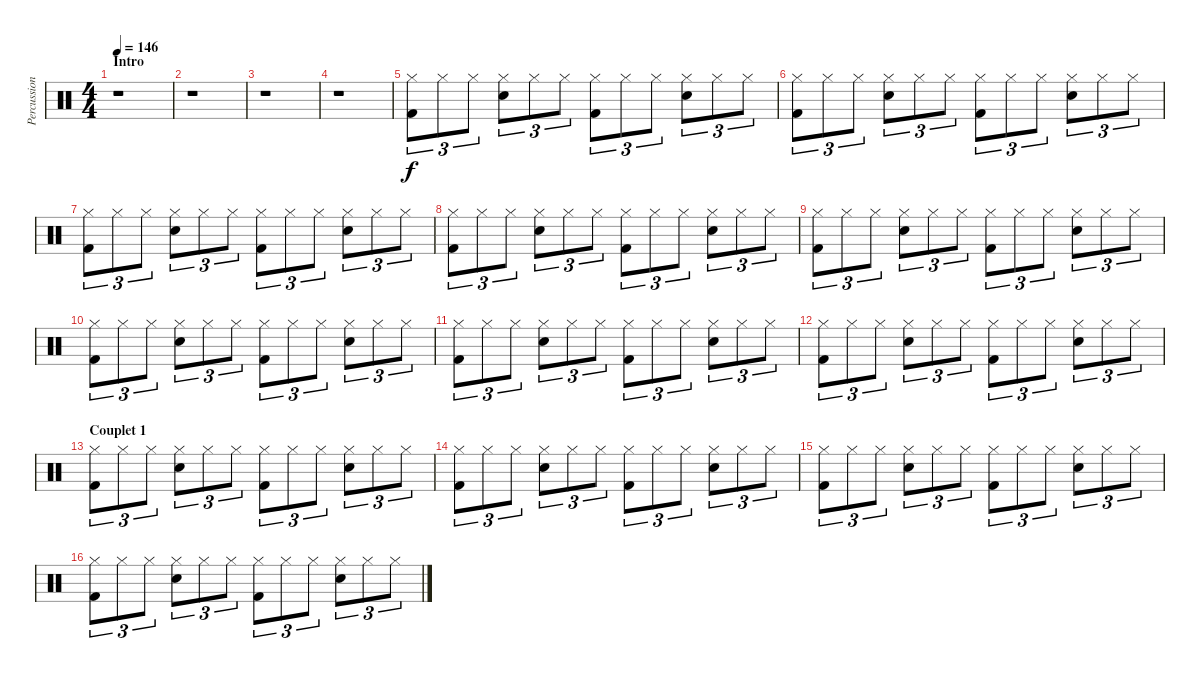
\track ("Percussions" "Percussion") {instrument percussion}
\staff {score}
\articulation defaults
\ts (4 4)
\section ("" "Intro")
\tempo 146
\clef neutral
\ks c
r.1{dy f} |
r.1 |
r.1 |
r.1 |
("Hi-Hat (closed)" "Kick (hit) 2").8{tu (3 2)} "Hi-Hat (closed)".8{tu (3 2)} "Hi-Hat (closed)".8{tu (3 2)} ("Hi-Hat (closed)" "Electric Snare (hit)").8{tu (3 2)} "Hi-Hat (closed)".8{tu (3 2)} "Hi-Hat (closed)".8{tu (3 2)} ("Hi-Hat (closed)" "Kick (hit) 2").8{tu (3 2)} "Hi-Hat (closed)".8{tu (3 2)} "Hi-Hat (closed)".8{tu (3 2)} ("Hi-Hat (closed)" "Electric Snare (hit)").8{tu (3 2)} "Hi-Hat (closed)".8{tu (3 2)} "Hi-Hat (closed)".8{tu (3 2)} |
("Hi-Hat (closed)" "Kick (hit) 2").8{tu (3 2)} "Hi-Hat (closed)".8{tu (3 2)} "Hi-Hat (closed)".8{tu (3 2)} ("Hi-Hat (closed)" "Electric Snare (hit)").8{tu (3 2)} "Hi-Hat (closed)".8{tu (3 2)} "Hi-Hat (closed)".8{tu (3 2)} ("Hi-Hat (closed)" "Kick (hit) 2").8{tu (3 2)} "Hi-Hat (closed)".8{tu (3 2)} "Hi-Hat (closed)".8{tu (3 2)} ("Hi-Hat (closed)" "Electric Snare (hit)").8{tu (3 2)} "Hi-Hat (closed)".8{tu (3 2)} "Hi-Hat (closed)".8{tu (3 2)} |
("Hi-Hat (closed)" "Kick (hit) 2").8{tu (3 2)} "Hi-Hat (closed)".8{tu (3 2)} "Hi-Hat (closed)".8{tu (3 2)} ("Hi-Hat (closed)" "Electric Snare (hit)").8{tu (3 2)} "Hi-Hat (closed)".8{tu (3 2)} "Hi-Hat (closed)".8{tu (3 2)} ("Hi-Hat (closed)" "Kick (hit) 2").8{tu (3 2)} "Hi-Hat (closed)".8{tu (3 2)} "Hi-Hat (closed)".8{tu (3 2)} ("Hi-Hat (closed)" "Electric Snare (hit)").8{tu (3 2)} "Hi-Hat (closed)".8{tu (3 2)} "Hi-Hat (closed)".8{tu (3 2)} |
("Hi-Hat (closed)" "Kick (hit) 2").8{tu (3 2)} "Hi-Hat (closed)".8{tu (3 2)} "Hi-Hat (closed)".8{tu (3 2)} ("Hi-Hat (closed)" "Electric Snare (hit)").8{tu (3 2)} "Hi-Hat (closed)".8{tu (3 2)} "Hi-Hat (closed)".8{tu (3 2)} ("Hi-Hat (closed)" "Kick (hit) 2").8{tu (3 2)} "Hi-Hat (closed)".8{tu (3 2)} "Hi-Hat (closed)".8{tu (3 2)} ("Hi-Hat (closed)" "Electric Snare (hit)").8{tu (3 2)} "Hi-Hat (closed)".8{tu (3 2)} "Hi-Hat (closed)".8{tu (3 2)} |
("Hi-Hat (closed)" "Kick (hit) 2").8{tu (3 2)} "Hi-Hat (closed)".8{tu (3 2)} "Hi-Hat (closed)".8{tu (3 2)} ("Hi-Hat (closed)" "Electric Snare (hit)").8{tu (3 2)} "Hi-Hat (closed)".8{tu (3 2)} "Hi-Hat (closed)".8{tu (3 2)} ("Hi-Hat (closed)" "Kick (hit) 2").8{tu (3 2)} "Hi-Hat (closed)".8{tu (3 2)} "Hi-Hat (closed)".8{tu (3 2)} ("Hi-Hat (closed)" "Electric Snare (hit)").8{tu (3 2)} "Hi-Hat (closed)".8{tu (3 2)} "Hi-Hat (closed)".8{tu (3 2)} |
("Hi-Hat (closed)" "Kick (hit) 2").8{tu (3 2)} "Hi-Hat (closed)".8{tu (3 2)} "Hi-Hat (closed)".8{tu (3 2)} ("Hi-Hat (closed)" "Electric Snare (hit)").8{tu (3 2)} "Hi-Hat (closed)".8{tu (3 2)} "Hi-Hat (closed)".8{tu (3 2)} ("Hi-Hat (closed)" "Kick (hit) 2").8{tu (3 2)} "Hi-Hat (closed)".8{tu (3 2)} "Hi-Hat (closed)".8{tu (3 2)} ("Hi-Hat (closed)" "Electric Snare (hit)").8{tu (3 2)} "Hi-Hat (closed)".8{tu (3 2)} "Hi-Hat (closed)".8{tu (3 2)} |
("Hi-Hat (closed)" "Kick (hit) 2").8{tu (3 2)} "Hi-Hat (closed)".8{tu (3 2)} "Hi-Hat (closed)".8{tu (3 2)} ("Hi-Hat (closed)" "Electric Snare (hit)").8{tu (3 2)} "Hi-Hat (closed)".8{tu (3 2)} "Hi-Hat (closed)".8{tu (3 2)} ("Hi-Hat (closed)" "Kick (hit) 2").8{tu (3 2)} "Hi-Hat (closed)".8{tu (3 2)} "Hi-Hat (closed)".8{tu (3 2)} ("Hi-Hat (closed)" "Electric Snare (hit)").8{tu (3 2)} "Hi-Hat (closed)".8{tu (3 2)} "Hi-Hat (closed)".8{tu (3 2)} |
("Hi-Hat (closed)" "Kick (hit) 2").8{tu (3 2)} "Hi-Hat (closed)".8{tu (3 2)} "Hi-Hat (closed)".8{tu (3 2)} ("Hi-Hat (closed)" "Electric Snare (hit)").8{tu (3 2)} "Hi-Hat (closed)".8{tu (3 2)} "Hi-Hat (closed)".8{tu (3 2)} ("Hi-Hat (closed)" "Kick (hit) 2").8{tu (3 2)} "Hi-Hat (closed)".8{tu (3 2)} "Hi-Hat (closed)".8{tu (3 2)} ("Hi-Hat (closed)" "Electric Snare (hit)").8{tu (3 2)} "Hi-Hat (closed)".8{tu (3 2)} "Hi-Hat (closed)".8{tu (3 2)} |
\section ("" "Couplet 1")
("Hi-Hat (closed)" "Kick (hit) 2").8{tu (3 2)} "Hi-Hat (closed)".8{tu (3 2)} "Hi-Hat (closed)".8{tu (3 2)} ("Hi-Hat (closed)" "Electric Snare (hit)").8{tu (3 2)} "Hi-Hat (closed)".8{tu (3 2)} "Hi-Hat (closed)".8{tu (3 2)} ("Hi-Hat (closed)" "Kick (hit) 2").8{tu (3 2)} "Hi-Hat (closed)".8{tu (3 2)} "Hi-Hat (closed)".8{tu (3 2)} ("Hi-Hat (closed)" "Electric Snare (hit)").8{tu (3 2)} "Hi-Hat (closed)".8{tu (3 2)} "Hi-Hat (closed)".8{tu (3 2)} |
("Hi-Hat (closed)" "Kick (hit) 2").8{tu (3 2)} "Hi-Hat (closed)".8{tu (3 2)} "Hi-Hat (closed)".8{tu (3 2)} ("Hi-Hat (closed)" "Electric Snare (hit)").8{tu (3 2)} "Hi-Hat (closed)".8{tu (3 2)} "Hi-Hat (closed)".8{tu (3 2)} ("Hi-Hat (closed)" "Kick (hit) 2").8{tu (3 2)} "Hi-Hat (closed)".8{tu (3 2)} "Hi-Hat (closed)".8{tu (3 2)} ("Hi-Hat (closed)" "Electric Snare (hit)").8{tu (3 2)} "Hi-Hat (closed)".8{tu (3 2)} "Hi-Hat (closed)".8{tu (3 2)} |
("Hi-Hat (closed)" "Kick (hit) 2").8{tu (3 2)} "Hi-Hat (closed)".8{tu (3 2)} "Hi-Hat (closed)".8{tu (3 2)} ("Hi-Hat (closed)" "Electric Snare (hit)").8{tu (3 2)} "Hi-Hat (closed)".8{tu (3 2)} "Hi-Hat (closed)".8{tu (3 2)} ("Hi-Hat (closed)" "Kick (hit) 2").8{tu (3 2)} "Hi-Hat (closed)".8{tu (3 2)} "Hi-Hat (closed)".8{tu (3 2)} ("Hi-Hat (closed)" "Electric Snare (hit)").8{tu (3 2)} "Hi-Hat (closed)".8{tu (3 2)} "Hi-Hat (closed)".8{tu (3 2)} |
("Hi-Hat (closed)" "Kick (hit) 2").8{tu (3 2)} "Hi-Hat (closed)".8{tu (3 2)} "Hi-Hat (closed)".8{tu (3 2)} ("Hi-Hat (closed)" "Electric Snare (hit)").8{tu (3 2)} "Hi-Hat (closed)".8{tu (3 2)} "Hi-Hat (closed)".8{tu (3 2)} ("Hi-Hat (closed)" "Kick (hit) 2").8{tu (3 2)} "Hi-Hat (closed)".8{tu (3 2)} "Hi-Hat (closed)".8{tu (3 2)} ("Hi-Hat (closed)" "Electric Snare (hit)").8{tu (3 2)} "Hi-Hat (closed)".8{tu (3 2)} "Hi-Hat (closed)".8{tu (3 2)}
